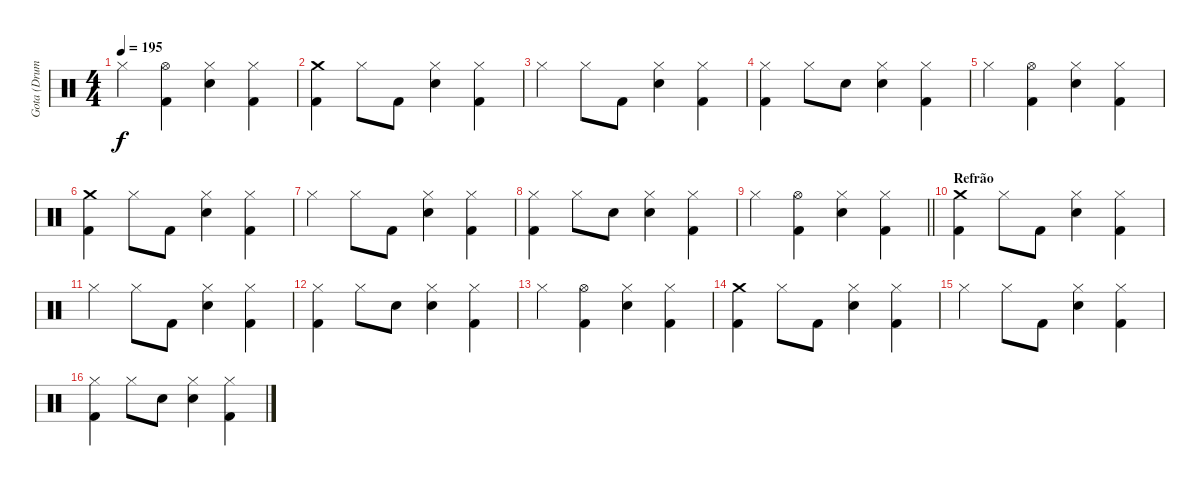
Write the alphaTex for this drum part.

\track ("Gota (Drums)" "Gota (Drum") {instrument percussion}
\staff {score}
\articulation defaults
\ts (4 4)
\tempo 195
\clef neutral
\ks c "Hi-Hat (closed)".4{dy f}
("Hi-Hat (open)" "Kick (hit) 2").4 ("Hi-Hat (closed)" "Electric Snare (hit)").4 ("Hi-Hat (closed)" "Kick (hit) 2").4 |
("Crash medium (hit)" "Kick (hit) 2").4 "Hi-Hat (closed)".8 "Kick (hit) 2".8 ("Hi-Hat (closed)" "Electric Snare (hit)").4 ("Hi-Hat (closed)" "Kick (hit) 2").4 |
"Hi-Hat (closed)".4 "Hi-Hat (closed)".8 "Kick (hit) 2".8 ("Hi-Hat (closed)" "Electric Snare (hit)").4 ("Hi-Hat (closed)" "Kick (hit) 2").4 |
("Hi-Hat (closed)" "Kick (hit) 2").4 "Hi-Hat (closed)".8 "Electric Snare (hit)".8 ("Hi-Hat (closed)" "Electric Snare (hit)").4 ("Hi-Hat (closed)" "Kick (hit) 2").4 |
"Hi-Hat (closed)".4 ("Hi-Hat (open)" "Kick (hit) 2").4 ("Hi-Hat (closed)" "Electric Snare (hit)").4 ("Hi-Hat (closed)" "Kick (hit) 2").4 |
("Crash medium (hit)" "Kick (hit) 2").4 "Hi-Hat (closed)".8 "Kick (hit) 2".8 ("Hi-Hat (closed)" "Electric Snare (hit)").4 ("Hi-Hat (closed)" "Kick (hit) 2").4 |
"Hi-Hat (closed)".4 "Hi-Hat (closed)".8 "Kick (hit) 2".8 ("Hi-Hat (closed)" "Electric Snare (hit)").4 ("Hi-Hat (closed)" "Kick (hit) 2").4 |
("Hi-Hat (closed)" "Kick (hit) 2").4 "Hi-Hat (closed)".8 "Electric Snare (hit)".8 ("Hi-Hat (closed)" "Electric Snare (hit)").4 ("Hi-Hat (closed)" "Kick (hit) 2").4 |
\barLineRight lightlight "Hi-Hat (closed)".4
("Hi-Hat (open)" "Kick (hit) 2").4 ("Hi-Hat (closed)" "Electric Snare (hit)").4 ("Hi-Hat (closed)" "Kick (hit) 2").4 |
\section ("" "Refrão")
("Crash medium (hit)" "Kick (hit) 2").4 "Hi-Hat (closed)".8 "Kick (hit) 2".8 ("Hi-Hat (closed)" "Electric Snare (hit)").4 ("Hi-Hat (closed)" "Kick (hit) 2").4 |
"Hi-Hat (closed)".4 "Hi-Hat (closed)".8 "Kick (hit) 2".8 ("Hi-Hat (closed)" "Electric Snare (hit)").4 ("Hi-Hat (closed)" "Kick (hit) 2").4 |
("Hi-Hat (closed)" "Kick (hit) 2").4 "Hi-Hat (closed)".8 "Electric Snare (hit)".8 ("Hi-Hat (closed)" "Electric Snare (hit)").4 ("Hi-Hat (closed)" "Kick (hit) 2").4 |
"Hi-Hat (closed)".4 ("Hi-Hat (open)" "Kick (hit) 2").4 ("Hi-Hat (closed)" "Electric Snare (hit)").4 ("Hi-Hat (closed)" "Kick (hit) 2").4 |
("Crash medium (hit)" "Kick (hit) 2").4 "Hi-Hat (closed)".8 "Kick (hit) 2".8 ("Hi-Hat (closed)" "Electric Snare (hit)").4 ("Hi-Hat (closed)" "Kick (hit) 2").4 |
"Hi-Hat (closed)".4 "Hi-Hat (closed)".8 "Kick (hit) 2".8 ("Hi-Hat (closed)" "Electric Snare (hit)").4 ("Hi-Hat (closed)" "Kick (hit) 2").4 |
("Hi-Hat (closed)" "Kick (hit) 2").4 "Hi-Hat (closed)".8 "Electric Snare (hit)".8 ("Hi-Hat (closed)" "Electric Snare (hit)").4 ("Hi-Hat (closed)" "Kick (hit) 2").4
